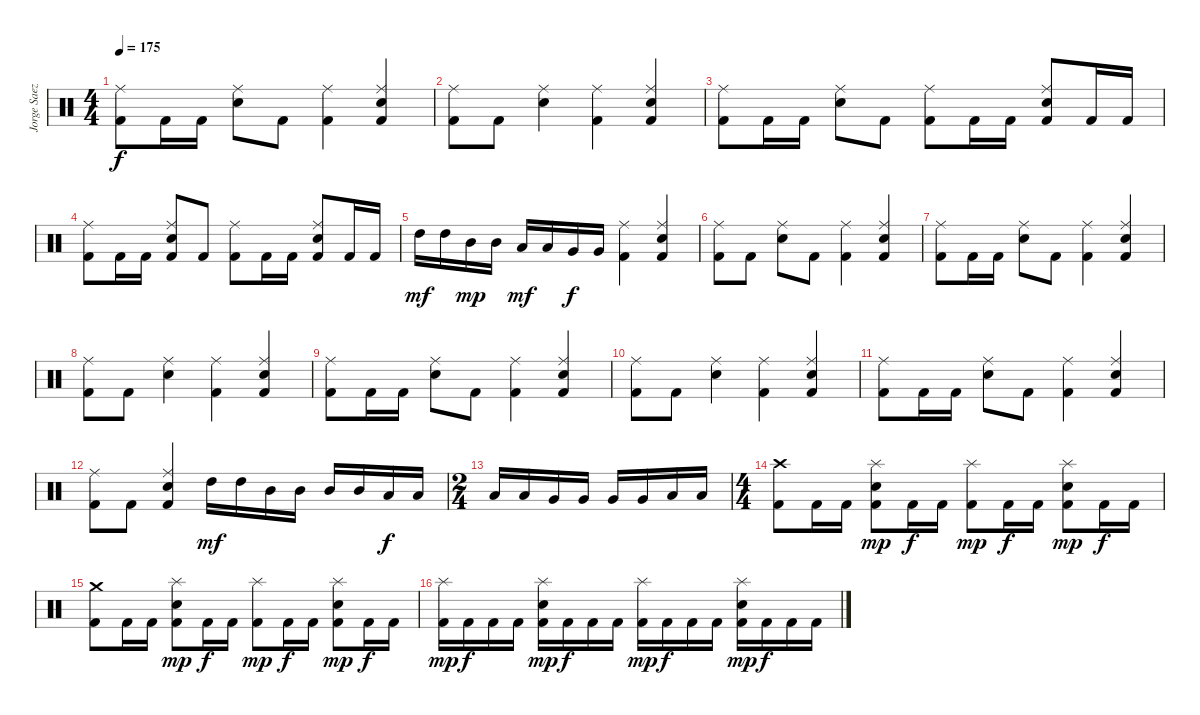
\track ("Jorge Saez, Drums" "Jorge Saez") {instrument percussion}
\staff
\articulation defaults
\ts (4 4)
\tempo 175
\clef neutral
\ks c
("Kick (hit) 2" "Ride (middle)").8{dy f} "Kick (hit) 2".16 "Kick (hit) 2".16 ("Electric Snare (hit)" "Ride (middle)").8 "Kick (hit) 2".8 ("Kick (hit) 2" "Ride (middle)").4 ("Kick (hit) 2" "Electric Snare (hit)" "Ride (middle)").4 |
("Kick (hit) 2" "Ride (middle)").8 "Kick (hit) 2".8 ("Electric Snare (hit)" "Ride (middle)").4 ("Kick (hit) 2" "Ride (middle)").4 ("Kick (hit) 2" "Electric Snare (hit)" "Ride (middle)").4 |
("Kick (hit) 2" "Ride (middle)").8 "Kick (hit) 2".16 "Kick (hit) 2".16 ("Electric Snare (hit)" "Ride (middle)").8 "Kick (hit) 2".8 ("Kick (hit) 2" "Ride (middle)").8 "Kick (hit) 2".16 "Kick (hit) 2".16 ("Kick (hit) 2" "Electric Snare (hit)" "Ride (middle)").8 "Kick (hit) 2".16 "Kick (hit) 2".16 |
("Kick (hit) 2" "Ride (middle)").8 "Kick (hit) 2".16 "Kick (hit) 2".16 ("Kick (hit) 2" "Electric Snare (hit)" "Ride (middle)").8 "Kick (hit) 2".8 ("Kick (hit) 2" "Ride (middle)").8 "Kick (hit) 2".16 "Kick (hit) 2".16 ("Kick (hit) 2" "Electric Snare (hit)" "Ride (middle)").8 "Kick (hit) 2".16 "Kick (hit) 2".16 |
"High Tom (hit)".16{dy mf} "High Tom (hit)".16 "Mid Tom (hit)".16{dy mp} "Mid Tom (hit)".16 "Low Tom (hit)".16{dy mf} "Low Tom (hit)".16 "Very Low Tom (hit)".16{dy f} "Very Low Tom (hit)".16 ("Kick (hit) 2" "Ride (middle)").4 ("Kick (hit) 2" "Electric Snare (hit)" "Ride (middle)").4 |
("Kick (hit) 2" "Ride (middle)").8 "Kick (hit) 2".8 ("Electric Snare (hit)" "Ride (middle)").8 "Kick (hit) 2".8 ("Kick (hit) 2" "Ride (middle)").4 ("Kick (hit) 2" "Electric Snare (hit)" "Ride (middle)").4 |
("Kick (hit) 2" "Ride (middle)").8 "Kick (hit) 2".16 "Kick (hit) 2".16 ("Electric Snare (hit)" "Ride (middle)").8 "Kick (hit) 2".8 ("Kick (hit) 2" "Ride (middle)").4 ("Kick (hit) 2" "Electric Snare (hit)" "Ride (middle)").4 |
("Kick (hit) 2" "Ride (middle)").8 "Kick (hit) 2".8 ("Electric Snare (hit)" "Ride (middle)").4 ("Kick (hit) 2" "Ride (middle)").4 ("Kick (hit) 2" "Electric Snare (hit)" "Ride (middle)").4 |
("Kick (hit) 2" "Ride (middle)").8 "Kick (hit) 2".16 "Kick (hit) 2".16 ("Electric Snare (hit)" "Ride (middle)").8 "Kick (hit) 2".8 ("Kick (hit) 2" "Ride (middle)").4 ("Kick (hit) 2" "Electric Snare (hit)" "Ride (middle)").4 |
("Kick (hit) 2" "Ride (middle)").8 "Kick (hit) 2".8 ("Electric Snare (hit)" "Ride (middle)").4 ("Kick (hit) 2" "Ride (middle)").4 ("Kick (hit) 2" "Electric Snare (hit)" "Ride (middle)").4 |
("Kick (hit) 2" "Ride (middle)").8 "Kick (hit) 2".16 "Kick (hit) 2".16 ("Electric Snare (hit)" "Ride (middle)").8 "Kick (hit) 2".8 ("Kick (hit) 2" "Ride (middle)").4 ("Kick (hit) 2" "Electric Snare (hit)" "Ride (middle)").4 |
("Kick (hit) 2" "Ride (middle)").8 "Kick (hit) 2".8 ("Kick (hit) 2" "Electric Snare (hit)" "Ride (middle)").4 "High Tom (hit)".16{dy mf} "High Tom (hit)".16 "Mid Tom (hit)".16 "Mid Tom (hit)".16 "Mid Tom (hit)".16 "Mid Tom (hit)".16 "Low Tom (hit)".16{dy f} "Low Tom (hit)".16 |
\ts (2 4)
"Low Tom (hit)".16 "Low Tom (hit)".16 "Very Low Tom (hit)".16 "Very Low Tom (hit)".16 "Very Low Tom (hit)".16 "Very Low Tom (hit)".16 "Low Floor Tom (hit)".16 "Low Floor Tom (hit)".16 |
\ts (4 4)
("Kick (hit) 2" "Crash high (hit)").8 "Kick (hit) 2".16 "Kick (hit) 2".16 ("Kick (hit) 2" "Electric Snare (hit)" "Splash (hit)").8{dy mp} "Kick (hit) 2".16{dy f} "Kick (hit) 2".16 ("Kick (hit) 2" "Splash (hit)").8{dy mp} "Kick (hit) 2".16{dy f} "Kick (hit) 2".16 ("Kick (hit) 2" "Electric Snare (hit)" "Splash (hit)").8{dy mp} "Kick (hit) 2".16{dy f} "Kick (hit) 2".16 |
("Kick (hit) 2" "Crash medium (hit)").8 "Kick (hit) 2".16 "Kick (hit) 2".16 ("Kick (hit) 2" "Electric Snare (hit)" "Splash (hit)").8{dy mp} "Kick (hit) 2".16{dy f} "Kick (hit) 2".16 ("Kick (hit) 2" "Splash (hit)").8{dy mp} "Kick (hit) 2".16{dy f} "Kick (hit) 2".16 ("Kick (hit) 2" "Electric Snare (hit)" "Splash (hit)").8{dy mp} "Kick (hit) 2".16{dy f} "Kick (hit) 2".16 |
("Kick (hit) 2" "Splash (hit)").16{dy mp} "Kick (hit) 2".16{dy f} "Kick (hit) 2".16 "Kick (hit) 2".16 ("Kick (hit) 2" "Electric Snare (hit)" "Splash (hit)").16{dy mp} "Kick (hit) 2".16{dy f} "Kick (hit) 2".16 "Kick (hit) 2".16 ("Kick (hit) 2" "Splash (hit)").16{dy mp} "Kick (hit) 2".16{dy f} "Kick (hit) 2".16 "Kick (hit) 2".16 ("Kick (hit) 2" "Electric Snare (hit)" "Splash (hit)").16{dy mp} "Kick (hit) 2".16{dy f} "Kick (hit) 2".16 "Kick (hit) 2".16
